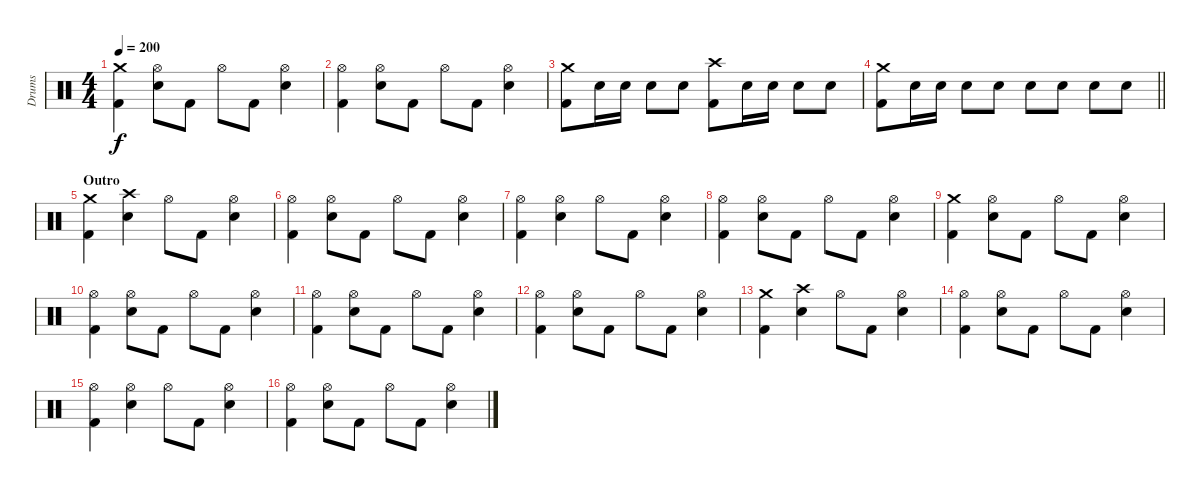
\track ("Drums" "Drums") {instrument percussion}
\staff {score}
\articulation defaults
\ts (4 4)
\tempo 200
\clef neutral
\ks c
("Crash medium (hit)" "Kick (hit) 2").4{dy f} ("Hi-Hat (open)" "Electric Snare (hit)").8 "Kick (hit) 2".8 "Hi-Hat (open)".8 "Kick (hit) 2".8 ("Hi-Hat (open)" "Electric Snare (hit)").4 |
("Hi-Hat (open)" "Kick (hit) 2").4 ("Hi-Hat (open)" "Electric Snare (hit)").8 "Kick (hit) 2".8 "Hi-Hat (open)".8 "Kick (hit) 2".8 ("Hi-Hat (open)" "Electric Snare (hit)").4 |
("Crash medium (hit)" "Kick (hit) 2").8 "Electric Snare (hit)".16 "Electric Snare (hit)".16 "Electric Snare (hit)".8 "Electric Snare (hit)".8 ("Crash high (hit)" "Kick (hit) 2").8 "Electric Snare (hit)".16 "Electric Snare (hit)".16 "Electric Snare (hit)".8 "Electric Snare (hit)".8 |
\barLineRight lightlight
("Crash medium (hit)" "Kick (hit) 2").8 "Electric Snare (hit)".16 "Electric Snare (hit)".16 "Electric Snare (hit)".8 "Electric Snare (hit)".8 "Electric Snare (hit)".8 "Electric Snare (hit)".8 "Electric Snare (hit)".8 "Electric Snare (hit)".8 |
\section ("" "Outro")
("Crash medium (hit)" "Kick (hit) 2").4 ("Crash high (hit)" "Electric Snare (hit)").4 "Hi-Hat (open)".8 "Kick (hit) 2".8 ("Hi-Hat (open)" "Electric Snare (hit)").4 |
("Hi-Hat (open)" "Kick (hit) 2").4 ("Hi-Hat (open)" "Electric Snare (hit)").8 "Kick (hit) 2".8 "Hi-Hat (open)".8 "Kick (hit) 2".8 ("Hi-Hat (open)" "Electric Snare (hit)").4 |
("Hi-Hat (open)" "Kick (hit) 2").4 ("Hi-Hat (open)" "Electric Snare (hit)").4 "Hi-Hat (open)".8 "Kick (hit) 2".8 ("Hi-Hat (open)" "Electric Snare (hit)").4 |
("Hi-Hat (open)" "Kick (hit) 2").4 ("Hi-Hat (open)" "Electric Snare (hit)").8 "Kick (hit) 2".8 "Hi-Hat (open)".8 "Kick (hit) 2".8 ("Hi-Hat (open)" "Electric Snare (hit)").4 |
("Crash medium (hit)" "Kick (hit) 2").4 ("Hi-Hat (open)" "Electric Snare (hit)").8 "Kick (hit) 2".8 "Hi-Hat (open)".8 "Kick (hit) 2".8 ("Hi-Hat (open)" "Electric Snare (hit)").4 |
("Hi-Hat (open)" "Kick (hit) 2").4 ("Hi-Hat (open)" "Electric Snare (hit)").8 "Kick (hit) 2".8 "Hi-Hat (open)".8 "Kick (hit) 2".8 ("Hi-Hat (open)" "Electric Snare (hit)").4 |
("Hi-Hat (open)" "Kick (hit) 2").4 ("Hi-Hat (open)" "Electric Snare (hit)").8 "Kick (hit) 2".8 "Hi-Hat (open)".8 "Kick (hit) 2".8 ("Hi-Hat (open)" "Electric Snare (hit)").4 |
("Hi-Hat (open)" "Kick (hit) 2").4 ("Hi-Hat (open)" "Electric Snare (hit)").8 "Kick (hit) 2".8 "Hi-Hat (open)".8 "Kick (hit) 2".8 ("Hi-Hat (open)" "Electric Snare (hit)").4 |
("Crash medium (hit)" "Kick (hit) 2").4 ("Crash high (hit)" "Electric Snare (hit)").4 "Hi-Hat (open)".8 "Kick (hit) 2".8 ("Hi-Hat (open)" "Electric Snare (hit)").4 |
("Hi-Hat (open)" "Kick (hit) 2").4 ("Hi-Hat (open)" "Electric Snare (hit)").8 "Kick (hit) 2".8 "Hi-Hat (open)".8 "Kick (hit) 2".8 ("Hi-Hat (open)" "Electric Snare (hit)").4 |
("Hi-Hat (open)" "Kick (hit) 2").4 ("Hi-Hat (open)" "Electric Snare (hit)").4 "Hi-Hat (open)".8 "Kick (hit) 2".8 ("Hi-Hat (open)" "Electric Snare (hit)").4 |
("Hi-Hat (open)" "Kick (hit) 2").4 ("Hi-Hat (open)" "Electric Snare (hit)").8 "Kick (hit) 2".8 "Hi-Hat (open)".8 "Kick (hit) 2".8 ("Hi-Hat (open)" "Electric Snare (hit)").4
